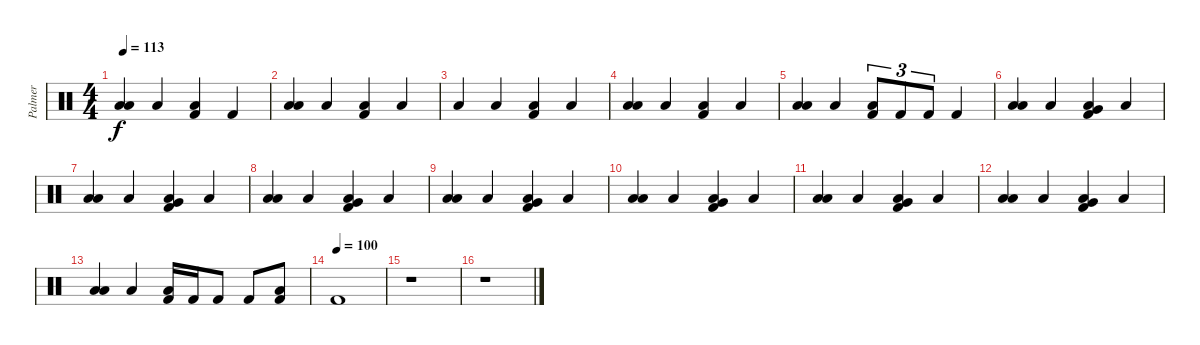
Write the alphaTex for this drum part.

\track ("Palmer" "Palmer") {instrument percussion}
\staff {score}
\articulation defaults
\ts (4 4)
\tempo 113
\clef neutral
\ks c
("Low Floor Tom (hit)" "Low Tom (hit)").4{dy f} "Low Floor Tom (hit)".4 ("Low Floor Tom (hit)" "Kick (hit) 2").4 "Kick (hit) 2".4 |
("Low Floor Tom (hit)" "Low Tom (hit)").4 "Low Floor Tom (hit)".4 ("Low Floor Tom (hit)" "Kick (hit) 2").4 "Low Floor Tom (hit)".4 |
"Low Floor Tom (hit)".4 "Low Floor Tom (hit)".4 ("Low Floor Tom (hit)" "Kick (hit) 2").4 "Low Floor Tom (hit)".4 |
("Low Floor Tom (hit)" "Low Tom (hit)").4 "Low Floor Tom (hit)".4 ("Low Floor Tom (hit)" "Kick (hit) 2").4 "Low Floor Tom (hit)".4 |
("Low Floor Tom (hit)" "Low Tom (hit)").4 "Low Floor Tom (hit)".4 ("Low Floor Tom (hit)" "Kick (hit) 2").8{tu (3 2)} "Kick (hit) 2".8{tu (3 2)} "Kick (hit) 2".8{tu (3 2)} "Kick (hit) 2".4 |
("Low Floor Tom (hit)" "Low Tom (hit)").4 "Low Floor Tom (hit)".4 ("Very Low Tom (hit)" "Low Floor Tom (hit)" "Kick (hit) 2").4 "Low Floor Tom (hit)".4 |
("Low Floor Tom (hit)" "Low Tom (hit)").4 "Low Floor Tom (hit)".4 ("Very Low Tom (hit)" "Low Floor Tom (hit)" "Kick (hit) 2").4 "Low Floor Tom (hit)".4 |
("Low Floor Tom (hit)" "Low Tom (hit)").4 "Low Floor Tom (hit)".4 ("Very Low Tom (hit)" "Low Floor Tom (hit)" "Kick (hit) 2").4 "Low Floor Tom (hit)".4 |
("Low Floor Tom (hit)" "Low Tom (hit)").4 "Low Floor Tom (hit)".4 ("Very Low Tom (hit)" "Low Floor Tom (hit)" "Kick (hit) 2").4 "Low Floor Tom (hit)".4 |
("Low Floor Tom (hit)" "Low Tom (hit)").4 "Low Floor Tom (hit)".4 ("Very Low Tom (hit)" "Low Floor Tom (hit)" "Kick (hit) 2").4 "Low Floor Tom (hit)".4 |
("Low Floor Tom (hit)" "Low Tom (hit)").4 "Low Floor Tom (hit)".4 ("Very Low Tom (hit)" "Low Floor Tom (hit)" "Kick (hit) 2").4 "Low Floor Tom (hit)".4 |
("Low Floor Tom (hit)" "Low Tom (hit)").4 "Low Floor Tom (hit)".4 ("Very Low Tom (hit)" "Low Floor Tom (hit)" "Kick (hit) 2").4 "Low Floor Tom (hit)".4 |
("Low Floor Tom (hit)" "Low Tom (hit)").4 "Low Floor Tom (hit)".4 ("Low Floor Tom (hit)" "Kick (hit) 2").16 "Kick (hit) 2".16 "Kick (hit) 2".8 "Kick (hit) 2".8 ("Low Floor Tom (hit)" "Kick (hit) 2").8 |
\tempo (100)
"Kick (hit) 2".1 |
r.1 |
r.1
